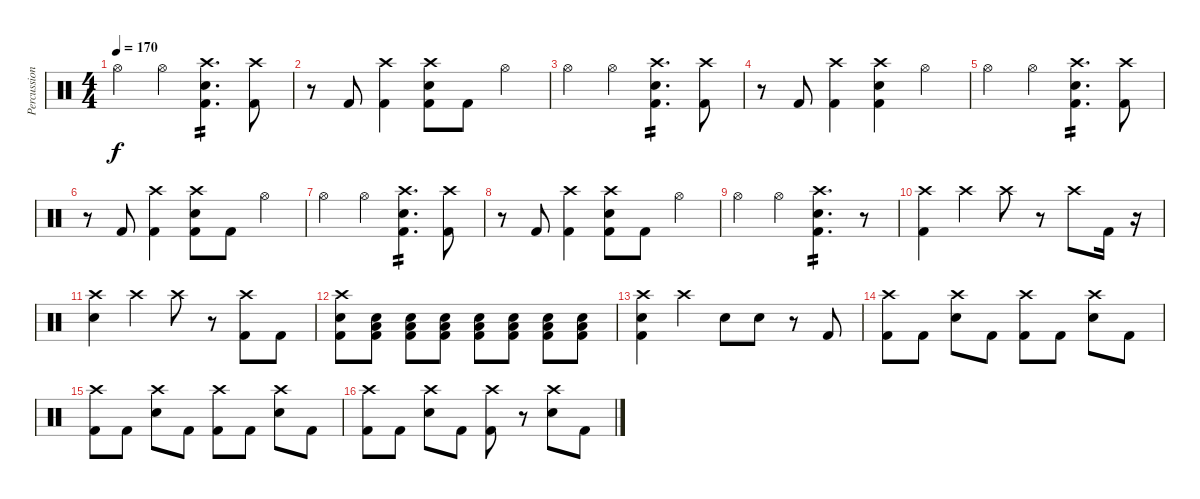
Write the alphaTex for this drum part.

\track ("Percussions" "Percussion") {instrument percussion}
\staff {score}
\articulation defaults
\ts (4 4)
\tempo 170
\clef neutral
\ks c "Hi-Hat (open)".4{dy f} "Hi-Hat (open)".4
("Crash high (hit)" "Electric Snare (hit)" "Kick (hit) 2").4{d tp 2} ("Crash high (hit)" "Kick (hit) 2").8 |
r.8 "Kick (hit) 2".8 ("Crash high (hit)" "Kick (hit) 2").4 ("Crash high (hit)" "Electric Snare (hit)" "Kick (hit) 2").8 "Kick (hit) 2".8 "Hi-Hat (open)".4 |
"Hi-Hat (open)".4 "Hi-Hat (open)".4 ("Crash high (hit)" "Electric Snare (hit)" "Kick (hit) 2").4{d tp 2} ("Crash high (hit)" "Kick (hit) 2").8 |
r.8 "Kick (hit) 2".8 ("Crash high (hit)" "Kick (hit) 2").4 ("Crash high (hit)" "Electric Snare (hit)" "Kick (hit) 2").4 "Hi-Hat (open)".4 |
"Hi-Hat (open)".4 "Hi-Hat (open)".4 ("Crash high (hit)" "Electric Snare (hit)" "Kick (hit) 2").4{d tp 2} ("Crash high (hit)" "Kick (hit) 2").8 |
r.8 "Kick (hit) 2".8 ("Crash high (hit)" "Kick (hit) 2").4 ("Crash high (hit)" "Electric Snare (hit)" "Kick (hit) 2").8 "Kick (hit) 2".8 "Hi-Hat (open)".4 |
"Hi-Hat (open)".4 "Hi-Hat (open)".4 ("Crash high (hit)" "Electric Snare (hit)" "Kick (hit) 2").4{d tp 2} ("Crash high (hit)" "Kick (hit) 2").8 |
r.8 "Kick (hit) 2".8 ("Crash high (hit)" "Kick (hit) 2").4 ("Crash high (hit)" "Electric Snare (hit)" "Kick (hit) 2").8 "Kick (hit) 2".8 "Hi-Hat (open)".4 |
"Hi-Hat (open)".4 "Hi-Hat (open)".4 ("Crash high (hit)" "Electric Snare (hit)" "Kick (hit) 2").4{d tp 2} r.8 |
("Crash high (hit)" "Kick (hit) 2").4 "Crash high (hit)".4 "Crash high (hit)".8 r.8 "Crash high (hit)".8 "Kick (hit) 2".16 r.16 |
("Crash high (hit)" "Electric Snare (hit)").4 "Crash high (hit)".4 "Crash high (hit)".8 r.8 ("Crash high (hit)" "Kick (hit) 2").8 "Kick (hit) 2".8 |
("Crash high (hit)" "Electric Snare (hit)" "Kick (hit) 2").8 ("Electric Snare (hit)" "Low Floor Tom (hit)" "Kick (hit) 2").8 ("Electric Snare (hit)" "Low Floor Tom (hit)" "Kick (hit) 2").8 ("Electric Snare (hit)" "Low Floor Tom (hit)" "Kick (hit) 2").8 ("Electric Snare (hit)" "Low Floor Tom (hit)" "Kick (hit) 2").8 ("Electric Snare (hit)" "Low Floor Tom (hit)" "Kick (hit) 2").8 ("Electric Snare (hit)" "Low Floor Tom (hit)" "Kick (hit) 2").8 ("Electric Snare (hit)" "Low Floor Tom (hit)" "Kick (hit) 2").8 |
("Crash high (hit)" "Electric Snare (hit)" "Kick (hit) 2").4 "Crash high (hit)".4 "Electric Snare (hit)".8 "Electric Snare (hit)".8 r.8 "Kick (hit) 2".8 |
("Crash high (hit)" "Kick (hit) 2").8 "Kick (hit) 2".8 ("Crash high (hit)" "Electric Snare (hit)").8 "Kick (hit) 2".8 ("Crash high (hit)" "Kick (hit) 2").8 "Kick (hit) 2".8 ("Crash high (hit)" "Electric Snare (hit)").8 "Kick (hit) 2".8 |
("Crash high (hit)" "Kick (hit) 2").8 "Kick (hit) 2".8 ("Crash high (hit)" "Electric Snare (hit)").8 "Kick (hit) 2".8 ("Crash high (hit)" "Kick (hit) 2").8 "Kick (hit) 2".8 ("Crash high (hit)" "Electric Snare (hit)").8 "Kick (hit) 2".8 |
("Crash high (hit)" "Kick (hit) 2").8 "Kick (hit) 2".8 ("Crash high (hit)" "Electric Snare (hit)").8 "Kick (hit) 2".8 ("Crash high (hit)" "Kick (hit) 2").8 r.8 ("Crash high (hit)" "Electric Snare (hit)").8 "Kick (hit) 2".8
